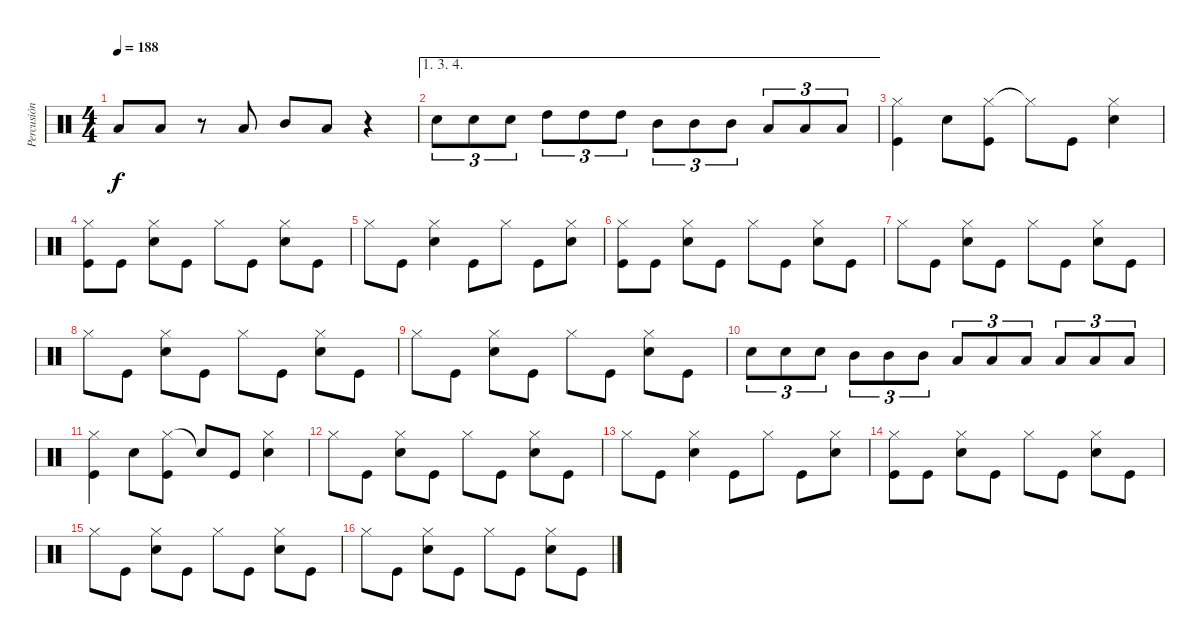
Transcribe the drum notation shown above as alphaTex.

\track ("Percusión" "Percusión") {instrument percussion}
\staff {score}
\articulation defaults
\ts (4 4)
\tempo 188
\clef neutral
\ks c "Low Tom (hit)".8{dy f} "Low Tom (hit)".8
r.8 "Low Tom (hit)".8 "Mid Tom (hit)".8 "Low Tom (hit)".8 r.4 |
\ae (1 3 4)
"Snare (hit) 2".8{tu (3 2)} "Snare (hit) 2".8{tu (3 2)} "Snare (hit) 2".8{tu (3 2)} "High Tom (hit)".8{tu (3 2)} "High Tom (hit)".8{tu (3 2)} "High Tom (hit)".8{tu (3 2)} "Mid Tom (hit)".8{tu (3 2)} "Mid Tom (hit)".8{tu (3 2)} "Mid Tom (hit)".8{tu (3 2)} "Low Tom (hit)".8{tu (3 2)} "Low Tom (hit)".8{tu (3 2)} "Low Tom (hit)".8{tu (3 2)} |
("Hi-Hat (closed)" "Kick (hit)").4 "Snare (hit) 2".8 ("Hi-Hat (closed)" "Kick (hit)").8 "Hi-Hat (closed)"{t}.8 "Kick (hit)".8 ("Hi-Hat (closed)" "Snare (hit) 2").4 |
("Hi-Hat (closed)" "Kick (hit)").8 "Kick (hit)".8 ("Hi-Hat (closed)" "Snare (hit) 2").8 "Kick (hit)".8 "Hi-Hat (closed)".8 "Kick (hit)".8 ("Hi-Hat (closed)" "Snare (hit) 2").8 "Kick (hit)".8 |
"Hi-Hat (closed)".8 "Kick (hit)".8 ("Hi-Hat (closed)" "Snare (hit) 2").4 "Kick (hit)".8 "Hi-Hat (closed)".8 "Kick (hit)".8 ("Hi-Hat (closed)" "Snare (hit) 2").8 |
("Hi-Hat (closed)" "Kick (hit)").8 "Kick (hit)".8 ("Hi-Hat (closed)" "Snare (hit) 2").8 "Kick (hit)".8 "Hi-Hat (closed)".8 "Kick (hit)".8 ("Hi-Hat (closed)" "Snare (hit) 2").8 "Kick (hit)".8 |
"Hi-Hat (closed)".8 "Kick (hit)".8 ("Hi-Hat (closed)" "Snare (hit) 2").8 "Kick (hit)".8 "Hi-Hat (closed)".8 "Kick (hit)".8 ("Hi-Hat (closed)" "Snare (hit) 2").8 "Kick (hit)".8 |
"Hi-Hat (closed)".8 "Kick (hit)".8 ("Hi-Hat (closed)" "Snare (hit) 2").8 "Kick (hit)".8 "Hi-Hat (closed)".8 "Kick (hit)".8 ("Hi-Hat (closed)" "Snare (hit) 2").8 "Kick (hit)".8 |
"Hi-Hat (closed)".8 "Kick (hit)".8 ("Hi-Hat (closed)" "Snare (hit) 2").8 "Kick (hit)".8 "Hi-Hat (closed)".8 "Kick (hit)".8 ("Hi-Hat (closed)" "Snare (hit) 2").8 "Kick (hit)".8 |
"Snare (hit) 2".8{tu (3 2)} "Snare (hit) 2".8{tu (3 2)} "Snare (hit) 2".8{tu (3 2)} "Mid Tom (hit)".8{tu (3 2)} "Mid Tom (hit)".8{tu (3 2)} "Mid Tom (hit)".8{tu (3 2)} "Low Tom (hit)".8{tu (3 2)} "Low Tom (hit)".8{tu (3 2)} "Low Tom (hit)".8{tu (3 2)} "Low Tom (hit)".8{tu (3 2)} "Low Tom (hit)".8{tu (3 2)} "Low Tom (hit)".8{tu (3 2)} |
("Hi-Hat (closed)" "Kick (hit)").4 "Snare (hit) 2".8 ("Hi-Hat (closed)" "Kick (hit)").8 "Snare (hit)"{t}.8 "Kick (hit)".8 ("Hi-Hat (closed)" "Snare (hit) 2").4 |
"Hi-Hat (closed)".8 "Kick (hit)".8 ("Hi-Hat (closed)" "Snare (hit) 2").8 "Kick (hit)".8 "Hi-Hat (closed)".8 "Kick (hit)".8 ("Hi-Hat (closed)" "Snare (hit) 2").8 "Kick (hit)".8 |
"Hi-Hat (closed)".8 "Kick (hit)".8 ("Hi-Hat (closed)" "Snare (hit) 2").4 "Kick (hit)".8 "Hi-Hat (closed)".8 "Kick (hit)".8 ("Hi-Hat (closed)" "Snare (hit) 2").8 |
("Hi-Hat (closed)" "Kick (hit)").8 "Kick (hit)".8 ("Hi-Hat (closed)" "Snare (hit) 2").8 "Kick (hit)".8 "Hi-Hat (closed)".8 "Kick (hit)".8 ("Hi-Hat (closed)" "Snare (hit) 2").8 "Kick (hit)".8 |
"Hi-Hat (closed)".8 "Kick (hit)".8 ("Hi-Hat (closed)" "Snare (hit) 2").8 "Kick (hit)".8 "Hi-Hat (closed)".8 "Kick (hit)".8 ("Hi-Hat (closed)" "Snare (hit) 2").8 "Kick (hit)".8 |
"Hi-Hat (closed)".8 "Kick (hit)".8 ("Hi-Hat (closed)" "Snare (hit) 2").8 "Kick (hit)".8 "Hi-Hat (closed)".8 "Kick (hit)".8 ("Hi-Hat (closed)" "Snare (hit) 2").8 "Kick (hit)".8
